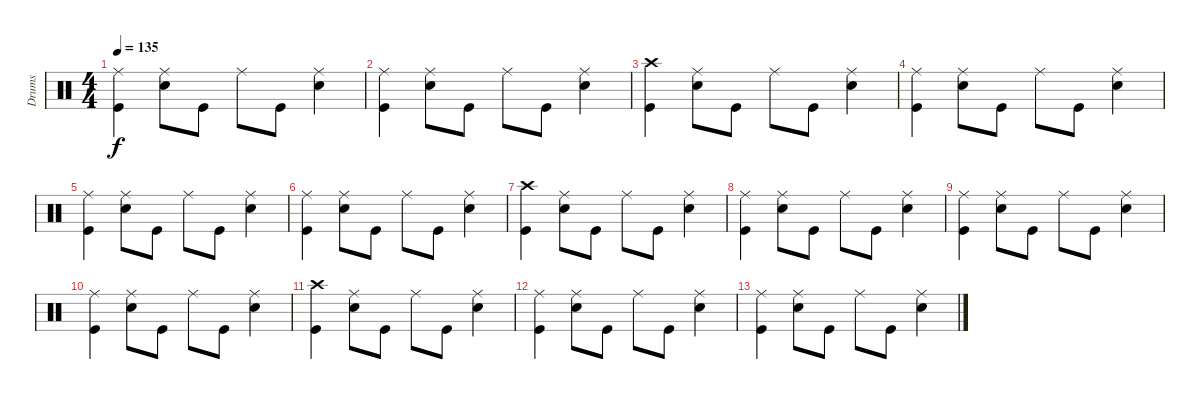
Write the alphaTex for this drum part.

\track ("Drums" "Drums") {instrument percussion}
\staff {score}
\articulation defaults
\ts (4 4)
\tempo 135
\clef neutral
\ks c
("Ride (middle)" "Kick (hit)").4{dy f} ("Ride (middle)" "Snare (hit) 2").8 "Kick (hit)".8 "Ride (middle)".8 "Kick (hit)".8 ("Ride (middle)" "Snare (hit) 2").4 |
("Ride (middle)" "Kick (hit)").4 ("Ride (middle)" "Snare (hit) 2").8 "Kick (hit)".8 "Ride (middle)".8 "Kick (hit)".8 ("Ride (middle)" "Snare (hit) 2").4 |
("Crash high (hit)" "Kick (hit)").4 ("Ride (middle)" "Snare (hit) 2").8 "Kick (hit)".8 "Ride (middle)".8 "Kick (hit)".8 ("Ride (middle)" "Snare (hit) 2").4 |
("Ride (middle)" "Kick (hit)").4 ("Ride (middle)" "Snare (hit) 2").8 "Kick (hit)".8 "Ride (middle)".8 "Kick (hit)".8 ("Ride (middle)" "Snare (hit) 2").4 |
("Ride (middle)" "Kick (hit)").4 ("Ride (middle)" "Snare (hit) 2").8 "Kick (hit)".8 "Ride (middle)".8 "Kick (hit)".8 ("Ride (middle)" "Snare (hit) 2").4 |
("Ride (middle)" "Kick (hit)").4 ("Ride (middle)" "Snare (hit) 2").8 "Kick (hit)".8 "Ride (middle)".8 "Kick (hit)".8 ("Ride (middle)" "Snare (hit) 2").4 |
("Crash high (hit)" "Kick (hit)").4 ("Ride (middle)" "Snare (hit) 2").8 "Kick (hit)".8 "Ride (middle)".8 "Kick (hit)".8 ("Ride (middle)" "Snare (hit) 2").4 |
("Ride (middle)" "Kick (hit)").4 ("Ride (middle)" "Snare (hit) 2").8 "Kick (hit)".8 "Ride (middle)".8 "Kick (hit)".8 ("Ride (middle)" "Snare (hit) 2").4 |
("Ride (middle)" "Kick (hit)").4 ("Ride (middle)" "Snare (hit) 2").8 "Kick (hit)".8 "Ride (middle)".8 "Kick (hit)".8 ("Ride (middle)" "Snare (hit) 2").4 |
("Ride (middle)" "Kick (hit)").4 ("Ride (middle)" "Snare (hit) 2").8 "Kick (hit)".8 "Ride (middle)".8 "Kick (hit)".8 ("Ride (middle)" "Snare (hit) 2").4 |
("Crash high (hit)" "Kick (hit)").4 ("Ride (middle)" "Snare (hit) 2").8 "Kick (hit)".8 "Ride (middle)".8 "Kick (hit)".8 ("Ride (middle)" "Snare (hit) 2").4 |
("Ride (middle)" "Kick (hit)").4 ("Ride (middle)" "Snare (hit) 2").8 "Kick (hit)".8 "Ride (middle)".8 "Kick (hit)".8 ("Ride (middle)" "Snare (hit) 2").4 |
("Ride (middle)" "Kick (hit)").4 ("Ride (middle)" "Snare (hit) 2").8 "Kick (hit)".8 "Ride (middle)".8 "Kick (hit)".8 ("Ride (middle)" "Snare (hit) 2").4
